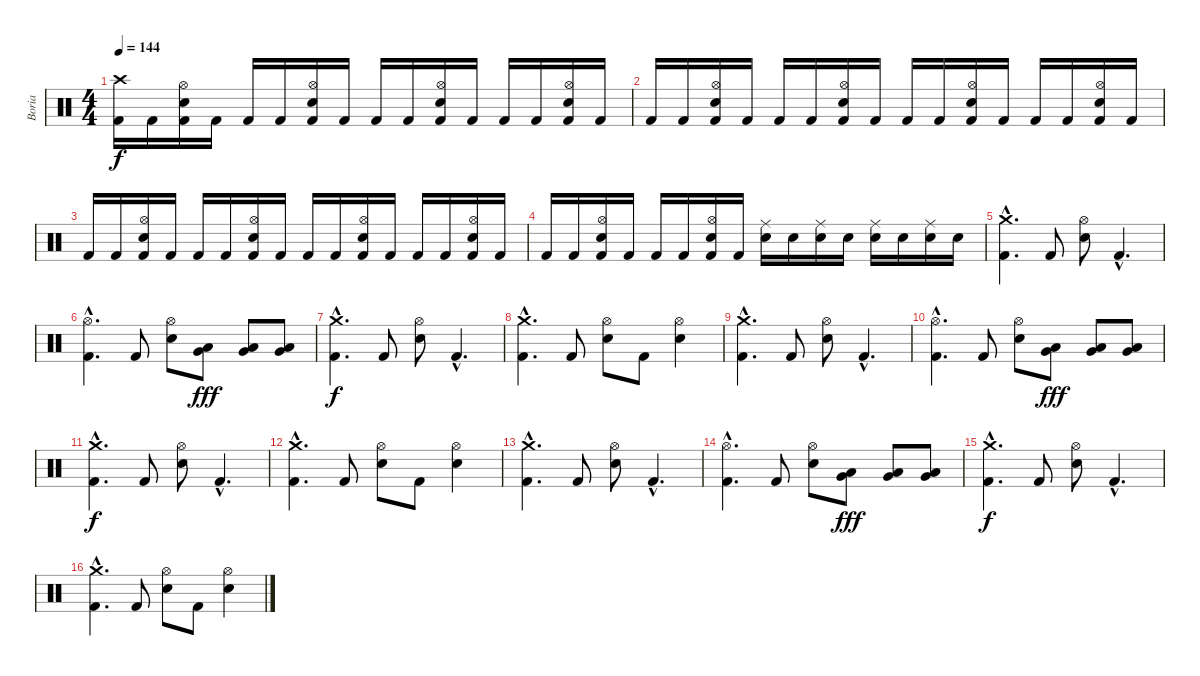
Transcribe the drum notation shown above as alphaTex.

\track ("Boria" "Boria") {instrument percussion}
\staff {score}
\articulation defaults
\ts (4 4)
\tempo 144
\clef neutral
\ks c
("Crash high (hit)" "Kick (hit) 2").16{dy f} "Kick (hit) 2".16 ("Hi-Hat (open)" "Electric Snare (hit)" "Kick (hit) 2").16 "Kick (hit) 2".16 "Kick (hit) 2".16 "Kick (hit) 2".16 ("Hi-Hat (open)" "Electric Snare (hit)" "Kick (hit) 2").16 "Kick (hit) 2".16 "Kick (hit) 2".16 "Kick (hit) 2".16 ("Hi-Hat (open)" "Electric Snare (hit)" "Kick (hit) 2").16 "Kick (hit) 2".16 "Kick (hit) 2".16 "Kick (hit) 2".16 ("Hi-Hat (open)" "Electric Snare (hit)" "Kick (hit) 2").16 "Kick (hit) 2".16 |
"Kick (hit) 2".16 "Kick (hit) 2".16 ("Hi-Hat (open)" "Electric Snare (hit)" "Kick (hit) 2").16 "Kick (hit) 2".16 "Kick (hit) 2".16 "Kick (hit) 2".16 ("Hi-Hat (open)" "Electric Snare (hit)" "Kick (hit) 2").16 "Kick (hit) 2".16 "Kick (hit) 2".16 "Kick (hit) 2".16 ("Hi-Hat (open)" "Electric Snare (hit)" "Kick (hit) 2").16 "Kick (hit) 2".16 "Kick (hit) 2".16 "Kick (hit) 2".16 ("Hi-Hat (open)" "Electric Snare (hit)" "Kick (hit) 2").16 "Kick (hit) 2".16 |
"Kick (hit) 2".16 "Kick (hit) 2".16 ("Hi-Hat (open)" "Electric Snare (hit)" "Kick (hit) 2").16 "Kick (hit) 2".16 "Kick (hit) 2".16 "Kick (hit) 2".16 ("Hi-Hat (open)" "Electric Snare (hit)" "Kick (hit) 2").16 "Kick (hit) 2".16 "Kick (hit) 2".16 "Kick (hit) 2".16 ("Hi-Hat (open)" "Electric Snare (hit)" "Kick (hit) 2").16 "Kick (hit) 2".16 "Kick (hit) 2".16 "Kick (hit) 2".16 ("Hi-Hat (open)" "Electric Snare (hit)" "Kick (hit) 2").16 "Kick (hit) 2".16 |
"Kick (hit) 2".16 "Kick (hit) 2".16 ("Hi-Hat (open)" "Electric Snare (hit)" "Kick (hit) 2").16 "Kick (hit) 2".16 "Kick (hit) 2".16 "Kick (hit) 2".16 ("Hi-Hat (open)" "Electric Snare (hit)" "Kick (hit) 2").16 "Kick (hit) 2".16 ("Ride (middle)" "Electric Snare (hit)").16 "Electric Snare (hit)".16 ("Ride (middle)" "Electric Snare (hit)").16 "Electric Snare (hit)".16 ("Ride (middle)" "Electric Snare (hit)").16 "Electric Snare (hit)".16 ("Ride (middle)" "Electric Snare (hit)").16 "Electric Snare (hit)".16 |
("Kick (hit) 2"{hac} "Crash medium (hit)"{hac}).4{d} "Kick (hit) 2".8 ("Electric Snare (hit)" "Hi-Hat (open)").8 "Kick (hit) 2"{hac}.4{d} |
("Kick (hit) 2"{hac} "Hi-Hat (open)"{hac}).4{d} "Kick (hit) 2".8 ("Electric Snare (hit)" "Hi-Hat (open)").8 ("Low Tom (hit)" "Very Low Tom (hit)").8{dy fff} ("Low Tom (hit)" "Very Low Tom (hit)").8 ("Low Tom (hit)" "Very Low Tom (hit)").8 |
("Kick (hit) 2"{hac} "Crash medium (hit)"{hac}).4{d dy f} "Kick (hit) 2".8 ("Electric Snare (hit)" "Hi-Hat (open)").8 "Kick (hit) 2"{hac}.4{d} |
("Kick (hit) 2"{hac} "Crash medium (hit)"{hac}).4{d} "Kick (hit) 2".8 ("Electric Snare (hit)" "Hi-Hat (open)").8 "Kick (hit) 2".8 ("Hi-Hat (open)" "Electric Snare (hit)").4 |
("Kick (hit) 2"{hac} "Crash medium (hit)"{hac}).4{d} "Kick (hit) 2".8 ("Electric Snare (hit)" "Hi-Hat (open)").8 "Kick (hit) 2"{hac}.4{d} |
("Kick (hit) 2"{hac} "Hi-Hat (open)"{hac}).4{d} "Kick (hit) 2".8 ("Electric Snare (hit)" "Hi-Hat (open)").8 ("Low Tom (hit)" "Very Low Tom (hit)").8{dy fff} ("Low Tom (hit)" "Very Low Tom (hit)").8 ("Low Tom (hit)" "Very Low Tom (hit)").8 |
("Kick (hit) 2"{hac} "Crash medium (hit)"{hac}).4{d dy f} "Kick (hit) 2".8 ("Electric Snare (hit)" "Hi-Hat (open)").8 "Kick (hit) 2"{hac}.4{d} |
("Kick (hit) 2"{hac} "Crash medium (hit)"{hac}).4{d} "Kick (hit) 2".8 ("Electric Snare (hit)" "Hi-Hat (open)").8 "Kick (hit) 2".8 ("Hi-Hat (open)" "Electric Snare (hit)").4 |
("Kick (hit) 2"{hac} "Crash medium (hit)"{hac}).4{d} "Kick (hit) 2".8 ("Electric Snare (hit)" "Hi-Hat (open)").8 "Kick (hit) 2"{hac}.4{d} |
("Kick (hit) 2"{hac} "Hi-Hat (open)"{hac}).4{d} "Kick (hit) 2".8 ("Electric Snare (hit)" "Hi-Hat (open)").8 ("Low Tom (hit)" "Very Low Tom (hit)").8{dy fff} ("Low Tom (hit)" "Very Low Tom (hit)").8 ("Low Tom (hit)" "Very Low Tom (hit)").8 |
("Kick (hit) 2"{hac} "Crash medium (hit)"{hac}).4{d dy f} "Kick (hit) 2".8 ("Electric Snare (hit)" "Hi-Hat (open)").8 "Kick (hit) 2"{hac}.4{d} |
("Kick (hit) 2"{hac} "Crash medium (hit)"{hac}).4{d} "Kick (hit) 2".8 ("Electric Snare (hit)" "Hi-Hat (open)").8 "Kick (hit) 2".8 ("Hi-Hat (open)" "Electric Snare (hit)").4
